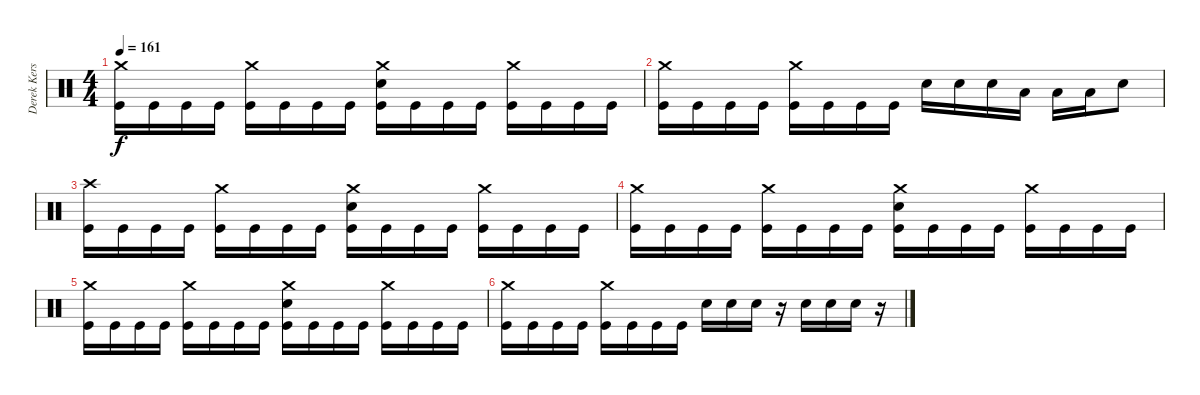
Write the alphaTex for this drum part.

\track ("Derek Kerswill" "Derek Kers") {instrument percussion}
\staff {score}
\articulation defaults
\ts (4 4)
\tempo 161
\clef neutral
\ks c
("Crash medium (hit)" "Kick (hit)").16{dy f} "Kick (hit)".16 "Kick (hit)".16 "Kick (hit)".16 ("Crash medium (hit)" "Kick (hit)").16 "Kick (hit)".16 "Kick (hit)".16 "Kick (hit)".16 ("Crash medium (hit)" "Electric Snare (hit)" "Kick (hit)").16 "Kick (hit)".16 "Kick (hit)".16 "Kick (hit)".16 ("Crash medium (hit)" "Kick (hit)").16 "Kick (hit)".16 "Kick (hit)".16 "Kick (hit)".16 |
("Crash medium (hit)" "Kick (hit)").16 "Kick (hit)".16 "Kick (hit)".16 "Kick (hit)".16 ("Crash medium (hit)" "Kick (hit)").16 "Kick (hit)".16 "Kick (hit)".16 "Kick (hit)".16 "Electric Snare (hit)".16 "Electric Snare (hit)".16 "Electric Snare (hit)".16 "Low Tom (hit)".16 "Low Tom (hit)".16 "Low Tom (hit)".16 "Electric Snare (hit)".8 |
("Crash high (hit)" "Kick (hit)").16 "Kick (hit)".16 "Kick (hit)".16 "Kick (hit)".16 ("Crash medium (hit)" "Kick (hit)").16 "Kick (hit)".16 "Kick (hit)".16 "Kick (hit)".16 ("Crash medium (hit)" "Electric Snare (hit)" "Kick (hit)").16 "Kick (hit)".16 "Kick (hit)".16 "Kick (hit)".16 ("Crash medium (hit)" "Kick (hit)").16 "Kick (hit)".16 "Kick (hit)".16 "Kick (hit)".16 |
("Crash medium (hit)" "Kick (hit)").16 "Kick (hit)".16 "Kick (hit)".16 "Kick (hit)".16 ("Crash medium (hit)" "Kick (hit)").16 "Kick (hit)".16 "Kick (hit)".16 "Kick (hit)".16 ("Crash medium (hit)" "Electric Snare (hit)" "Kick (hit)").16 "Kick (hit)".16 "Kick (hit)".16 "Kick (hit)".16 ("Crash medium (hit)" "Kick (hit)").16 "Kick (hit)".16 "Kick (hit)".16 "Kick (hit)".16 |
("Crash medium (hit)" "Kick (hit)").16 "Kick (hit)".16 "Kick (hit)".16 "Kick (hit)".16 ("Crash medium (hit)" "Kick (hit)").16 "Kick (hit)".16 "Kick (hit)".16 "Kick (hit)".16 ("Crash medium (hit)" "Electric Snare (hit)" "Kick (hit)").16 "Kick (hit)".16 "Kick (hit)".16 "Kick (hit)".16 ("Crash medium (hit)" "Kick (hit)").16 "Kick (hit)".16 "Kick (hit)".16 "Kick (hit)".16 |
("Crash medium (hit)" "Kick (hit)").16 "Kick (hit)".16 "Kick (hit)".16 "Kick (hit)".16 ("Crash medium (hit)" "Kick (hit)").16 "Kick (hit)".16 "Kick (hit)".16 "Kick (hit)".16 "Electric Snare (hit)".16 "Electric Snare (hit)".16 "Electric Snare (hit)".16 r.16 "Electric Snare (hit)".16 "Electric Snare (hit)".16 "Electric Snare (hit)".16 r.16
